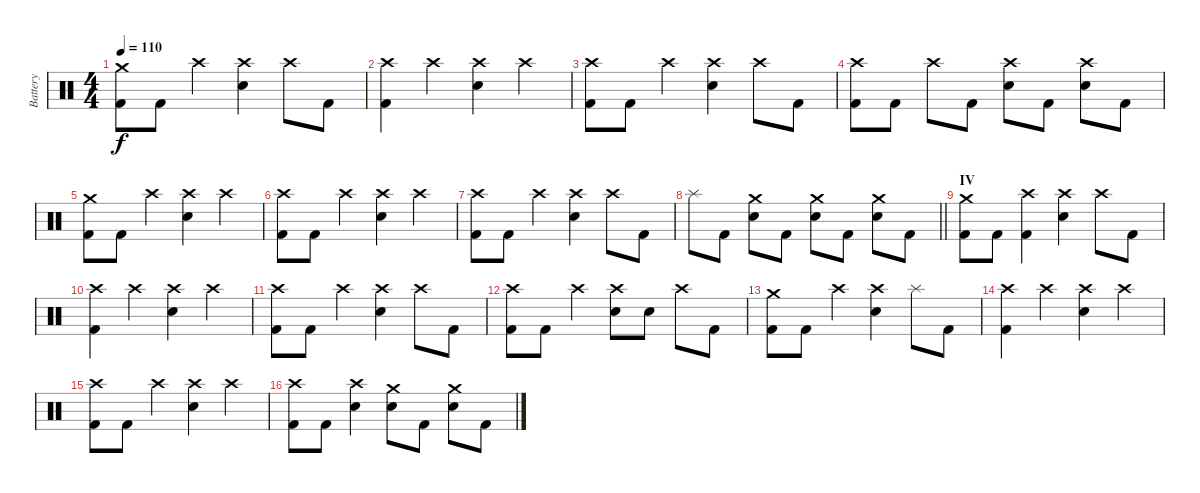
\track ("Battery" "Battery") {instrument percussion}
\staff {score}
\articulation defaults
\ts (4 4)
\tempo 110
\clef neutral
\ks c
("Crash medium (hit)" "Kick (hit) 2").8{dy f} "Kick (hit) 2".8 "Crash high (hit)".4 ("Crash high (hit)" "Electric Snare (hit)").4 "Crash high (hit)".8 "Kick (hit) 2".8 |
("Crash high (hit)" "Kick (hit) 2").4 "Crash high (hit)".4 ("Crash high (hit)" "Electric Snare (hit)").4 "Crash high (hit)".4 |
("Crash high (hit)" "Kick (hit) 2").8 "Kick (hit) 2".8 "Crash high (hit)".4 ("Crash high (hit)" "Electric Snare (hit)").4 "Crash high (hit)".8 "Kick (hit) 2".8 |
("Crash high (hit)" "Kick (hit) 2").8 "Kick (hit) 2".8 "Crash high (hit)".8 "Kick (hit) 2".8 ("Crash high (hit)" "Electric Snare (hit)").8 "Kick (hit) 2".8 ("Crash high (hit)" "Electric Snare (hit)").8 "Kick (hit) 2".8 |
("Crash medium (hit)" "Kick (hit) 2").8 "Kick (hit) 2".8 "Crash high (hit)".4 ("Crash high (hit)" "Electric Snare (hit)").4 "Crash high (hit)".4 |
("Crash high (hit)" "Kick (hit) 2").8 "Kick (hit) 2".8 "Crash high (hit)".4 ("Crash high (hit)" "Electric Snare (hit)").4 "Crash high (hit)".4 |
("Crash high (hit)" "Kick (hit) 2").8 "Kick (hit) 2".8 "Crash high (hit)".4 ("Crash high (hit)" "Electric Snare (hit)").4 "Crash high (hit)".8 "Kick (hit) 2".8 |
\barLineRight lightlight "Splash (hit)".8 "Kick (hit) 2".8
("Crash medium (hit)" "Electric Snare (hit)").8 "Kick (hit) 2".8 ("Crash medium (hit)" "Electric Snare (hit)").8 "Kick (hit) 2".8 ("Crash medium (hit)" "Electric Snare (hit)").8 "Kick (hit) 2".8 |
\section ("" "IV")
("Crash medium (hit)" "Kick (hit) 2").8 "Kick (hit) 2".8 ("Crash high (hit)" "Kick (hit) 2").4 ("Crash high (hit)" "Electric Snare (hit)").4 "Crash high (hit)".8 "Kick (hit) 2".8 |
("Crash high (hit)" "Kick (hit) 2").4 "Crash high (hit)".4 ("Crash high (hit)" "Electric Snare (hit)").4 "Crash high (hit)".4 |
("Crash high (hit)" "Kick (hit) 2").8 "Kick (hit) 2".8 "Crash high (hit)".4 ("Crash high (hit)" "Electric Snare (hit)").4 "Crash high (hit)".8 "Kick (hit) 2".8 |
("Crash high (hit)" "Kick (hit) 2").8 "Kick (hit) 2".8 "Crash high (hit)".4 ("Crash high (hit)" "Electric Snare (hit)").8 "Electric Snare (hit)".8 "Crash high (hit)".8 "Kick (hit) 2".8 |
("Crash medium (hit)" "Kick (hit) 2").8 "Kick (hit) 2".8 "Crash high (hit)".4 ("Crash high (hit)" "Electric Snare (hit)").4 "Splash (hit)".8 "Kick (hit) 2".8 |
("Crash high (hit)" "Kick (hit) 2").4 "Crash high (hit)".4 ("Crash high (hit)" "Electric Snare (hit)").4 "Crash high (hit)".4 |
("Crash high (hit)" "Kick (hit) 2").8 "Kick (hit) 2".8 "Crash high (hit)".4 ("Crash high (hit)" "Electric Snare (hit)").4 "Crash high (hit)".4 |
("Crash high (hit)" "Kick (hit) 2").8 "Kick (hit) 2".8 ("Crash high (hit)" "Electric Snare (hit)").4 ("Crash medium (hit)" "Electric Snare (hit)").8 "Kick (hit) 2".8 ("Crash medium (hit)" "Electric Snare (hit)").8 "Kick (hit) 2".8
